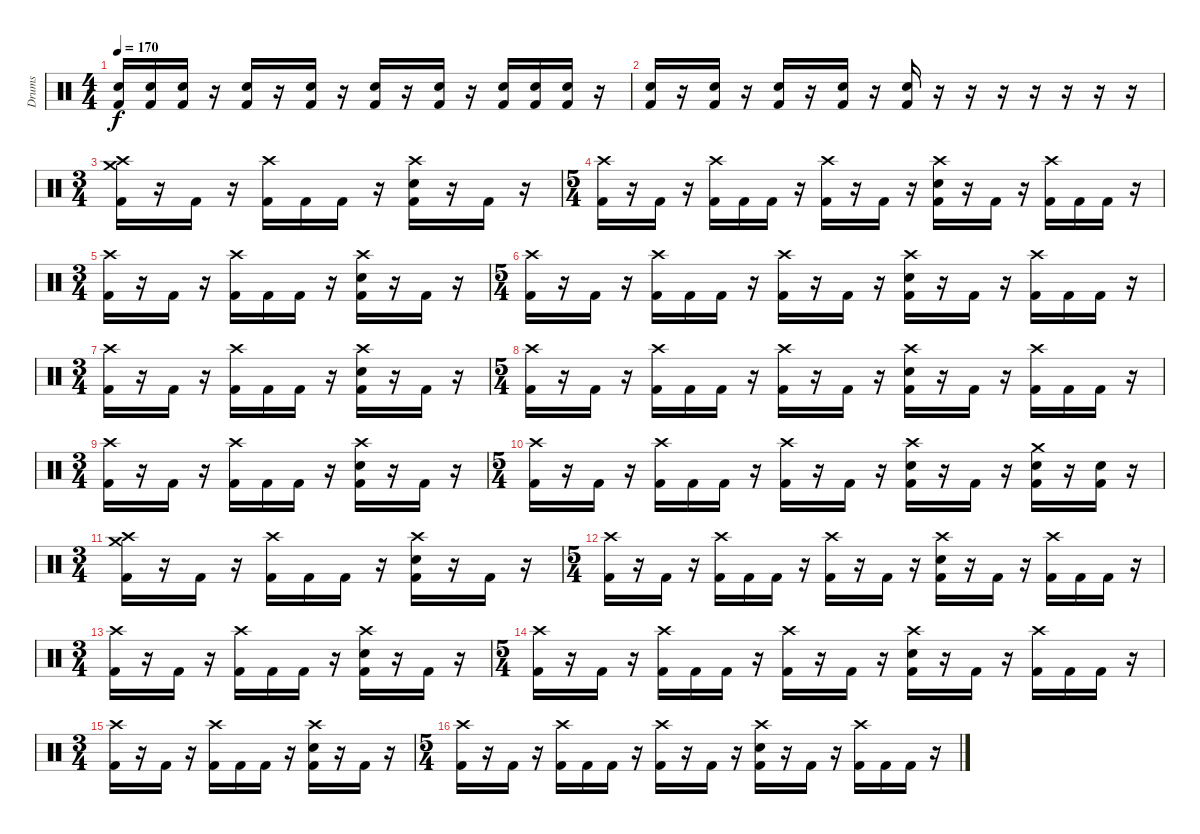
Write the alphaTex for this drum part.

\track ("Drums" "Drums") {instrument percussion}
\staff {score}
\articulation defaults
\ts (4 4)
\tempo 170
\clef neutral
\ks c
("Electric Snare (hit)" "Kick (hit) 2").16{dy f} ("Electric Snare (hit)" "Kick (hit) 2").16 ("Electric Snare (hit)" "Kick (hit) 2").16 r.16 ("Electric Snare (hit)" "Kick (hit) 2").16 r.16 ("Electric Snare (hit)" "Kick (hit) 2").16 r.16 ("Electric Snare (hit)" "Kick (hit) 2").16 r.16 ("Electric Snare (hit)" "Kick (hit) 2").16 r.16 ("Electric Snare (hit)" "Kick (hit) 2").16 ("Electric Snare (hit)" "Kick (hit) 2").16 ("Electric Snare (hit)" "Kick (hit) 2").16 r.16 |
("Electric Snare (hit)" "Kick (hit) 2").16 r.16 ("Electric Snare (hit)" "Kick (hit) 2").16 r.16 ("Electric Snare (hit)" "Kick (hit) 2").16 r.16 ("Electric Snare (hit)" "Kick (hit) 2").16 r.16 ("Electric Snare (hit)" "Kick (hit) 2").16 r.16 r.16 r.16 r.16 r.16 r.16 r.16 |
\ts (3 4)
\section ("" "")
("Crash medium (hit)" "Crash high (hit)" "Kick (hit) 2").16 r.16 "Kick (hit) 2".16 r.16 ("Crash high (hit)" "Kick (hit) 2").16 "Kick (hit) 2".16 "Kick (hit) 2".16 r.16 ("Crash high (hit)" "Electric Snare (hit)" "Kick (hit) 2").16 r.16 "Kick (hit) 2".16 r.16 |
\ts (5 4)
("Crash high (hit)" "Kick (hit) 2").16 r.16 "Kick (hit) 2".16 r.16 ("Crash high (hit)" "Kick (hit) 2").16 "Kick (hit) 2".16 "Kick (hit) 2".16 r.16 ("Crash high (hit)" "Kick (hit) 2").16 r.16 "Kick (hit) 2".16 r.16 ("Crash high (hit)" "Electric Snare (hit)" "Kick (hit) 2").16 r.16 "Kick (hit) 2".16 r.16 ("Crash high (hit)" "Kick (hit) 2").16 "Kick (hit) 2".16 "Kick (hit) 2".16 r.16 |
\ts (3 4)
("Crash high (hit)" "Kick (hit) 2").16 r.16 "Kick (hit) 2".16 r.16 ("Crash high (hit)" "Kick (hit) 2").16 "Kick (hit) 2".16 "Kick (hit) 2".16 r.16 ("Crash high (hit)" "Electric Snare (hit)" "Kick (hit) 2").16 r.16 "Kick (hit) 2".16 r.16 |
\ts (5 4)
("Crash high (hit)" "Kick (hit) 2").16 r.16 "Kick (hit) 2".16 r.16 ("Crash high (hit)" "Kick (hit) 2").16 "Kick (hit) 2".16 "Kick (hit) 2".16 r.16 ("Crash high (hit)" "Kick (hit) 2").16 r.16 "Kick (hit) 2".16 r.16 ("Crash high (hit)" "Electric Snare (hit)" "Kick (hit) 2").16 r.16 "Kick (hit) 2".16 r.16 ("Crash high (hit)" "Kick (hit) 2").16 "Kick (hit) 2".16 "Kick (hit) 2".16 r.16 |
\ts (3 4)
("Crash high (hit)" "Kick (hit) 2").16 r.16 "Kick (hit) 2".16 r.16 ("Crash high (hit)" "Kick (hit) 2").16 "Kick (hit) 2".16 "Kick (hit) 2".16 r.16 ("Crash high (hit)" "Electric Snare (hit)" "Kick (hit) 2").16 r.16 "Kick (hit) 2".16 r.16 |
\ts (5 4)
("Crash high (hit)" "Kick (hit) 2").16 r.16 "Kick (hit) 2".16 r.16 ("Crash high (hit)" "Kick (hit) 2").16 "Kick (hit) 2".16 "Kick (hit) 2".16 r.16 ("Crash high (hit)" "Kick (hit) 2").16 r.16 "Kick (hit) 2".16 r.16 ("Crash high (hit)" "Electric Snare (hit)" "Kick (hit) 2").16 r.16 "Kick (hit) 2".16 r.16 ("Crash high (hit)" "Kick (hit) 2").16 "Kick (hit) 2".16 "Kick (hit) 2".16 r.16 |
\ts (3 4)
("Crash high (hit)" "Kick (hit) 2").16 r.16 "Kick (hit) 2".16 r.16 ("Crash high (hit)" "Kick (hit) 2").16 "Kick (hit) 2".16 "Kick (hit) 2".16 r.16 ("Crash high (hit)" "Electric Snare (hit)" "Kick (hit) 2").16 r.16 "Kick (hit) 2".16 r.16 |
\ts (5 4)
("Crash high (hit)" "Kick (hit) 2").16 r.16 "Kick (hit) 2".16 r.16 ("Crash high (hit)" "Kick (hit) 2").16 "Kick (hit) 2".16 "Kick (hit) 2".16 r.16 ("Crash high (hit)" "Kick (hit) 2").16 r.16 "Kick (hit) 2".16 r.16 ("Crash high (hit)" "Electric Snare (hit)" "Kick (hit) 2").16 r.16 "Kick (hit) 2".16 r.16 ("Crash medium (hit)" "Electric Snare (hit)" "Kick (hit) 2").16 r.16 ("Electric Snare (hit)" "Kick (hit) 2").16 r.16 |
\ts (3 4)
("Crash medium (hit)" "Crash high (hit)" "Kick (hit) 2").16 r.16 "Kick (hit) 2".16 r.16 ("Crash high (hit)" "Kick (hit) 2").16 "Kick (hit) 2".16 "Kick (hit) 2".16 r.16 ("Crash high (hit)" "Electric Snare (hit)" "Kick (hit) 2").16 r.16 "Kick (hit) 2".16 r.16 |
\ts (5 4)
("Crash high (hit)" "Kick (hit) 2").16 r.16 "Kick (hit) 2".16 r.16 ("Crash high (hit)" "Kick (hit) 2").16 "Kick (hit) 2".16 "Kick (hit) 2".16 r.16 ("Crash high (hit)" "Kick (hit) 2").16 r.16 "Kick (hit) 2".16 r.16 ("Crash high (hit)" "Electric Snare (hit)" "Kick (hit) 2").16 r.16 "Kick (hit) 2".16 r.16 ("Crash high (hit)" "Kick (hit) 2").16 "Kick (hit) 2".16 "Kick (hit) 2".16 r.16 |
\ts (3 4)
("Crash high (hit)" "Kick (hit) 2").16 r.16 "Kick (hit) 2".16 r.16 ("Crash high (hit)" "Kick (hit) 2").16 "Kick (hit) 2".16 "Kick (hit) 2".16 r.16 ("Crash high (hit)" "Electric Snare (hit)" "Kick (hit) 2").16 r.16 "Kick (hit) 2".16 r.16 |
\ts (5 4)
("Crash high (hit)" "Kick (hit) 2").16 r.16 "Kick (hit) 2".16 r.16 ("Crash high (hit)" "Kick (hit) 2").16 "Kick (hit) 2".16 "Kick (hit) 2".16 r.16 ("Crash high (hit)" "Kick (hit) 2").16 r.16 "Kick (hit) 2".16 r.16 ("Crash high (hit)" "Electric Snare (hit)" "Kick (hit) 2").16 r.16 "Kick (hit) 2".16 r.16 ("Crash high (hit)" "Kick (hit) 2").16 "Kick (hit) 2".16 "Kick (hit) 2".16 r.16 |
\ts (3 4)
("Crash high (hit)" "Kick (hit) 2").16 r.16 "Kick (hit) 2".16 r.16 ("Crash high (hit)" "Kick (hit) 2").16 "Kick (hit) 2".16 "Kick (hit) 2".16 r.16 ("Crash high (hit)" "Electric Snare (hit)" "Kick (hit) 2").16 r.16 "Kick (hit) 2".16 r.16 |
\ts (5 4)
("Crash high (hit)" "Kick (hit) 2").16 r.16 "Kick (hit) 2".16 r.16 ("Crash high (hit)" "Kick (hit) 2").16 "Kick (hit) 2".16 "Kick (hit) 2".16 r.16 ("Crash high (hit)" "Kick (hit) 2").16 r.16 "Kick (hit) 2".16 r.16 ("Crash high (hit)" "Electric Snare (hit)" "Kick (hit) 2").16 r.16 "Kick (hit) 2".16 r.16 ("Crash high (hit)" "Kick (hit) 2").16 "Kick (hit) 2".16 "Kick (hit) 2".16 r.16
